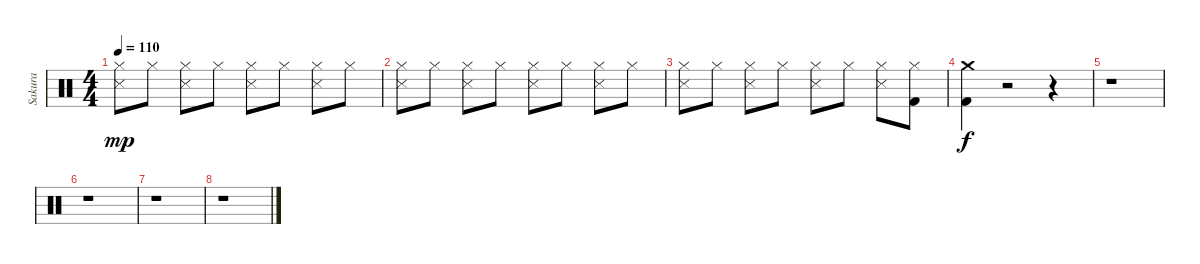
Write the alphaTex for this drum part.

\track ("Sakura" "Sakura") {instrument percussion}
\staff {score}
\articulation defaults
\ts (4 4)
\tempo 110
\clef neutral
\ks c
("Hi-Hat (closed)" "Snare (side stick) 3").8{dy mp} "Hi-Hat (closed)".8 ("Hi-Hat (closed)" "Snare (side stick) 3").8 "Hi-Hat (closed)".8 ("Hi-Hat (closed)" "Snare (side stick) 3").8 "Hi-Hat (closed)".8 ("Hi-Hat (closed)" "Snare (side stick) 3").8 "Hi-Hat (closed)".8 |
("Hi-Hat (closed)" "Snare (side stick) 3").8 "Hi-Hat (closed)".8 ("Hi-Hat (closed)" "Snare (side stick) 3").8 "Hi-Hat (closed)".8 ("Hi-Hat (closed)" "Snare (side stick) 3").8 "Hi-Hat (closed)".8 ("Hi-Hat (closed)" "Snare (side stick) 3").8 "Hi-Hat (closed)".8 |
("Hi-Hat (closed)" "Snare (side stick) 3").8 "Hi-Hat (closed)".8 ("Hi-Hat (closed)" "Snare (side stick) 3").8 "Hi-Hat (closed)".8 ("Hi-Hat (closed)" "Snare (side stick) 3").8 "Hi-Hat (closed)".8 ("Hi-Hat (closed)" "Snare (side stick) 3").8 ("Hi-Hat (closed)" "Kick (hit) 2").8 |
("Crash medium (hit)" "Kick (hit) 2").4{dy f} r.2 r.4 |
r.1 |
r.1 |
r.1 |
r.1
